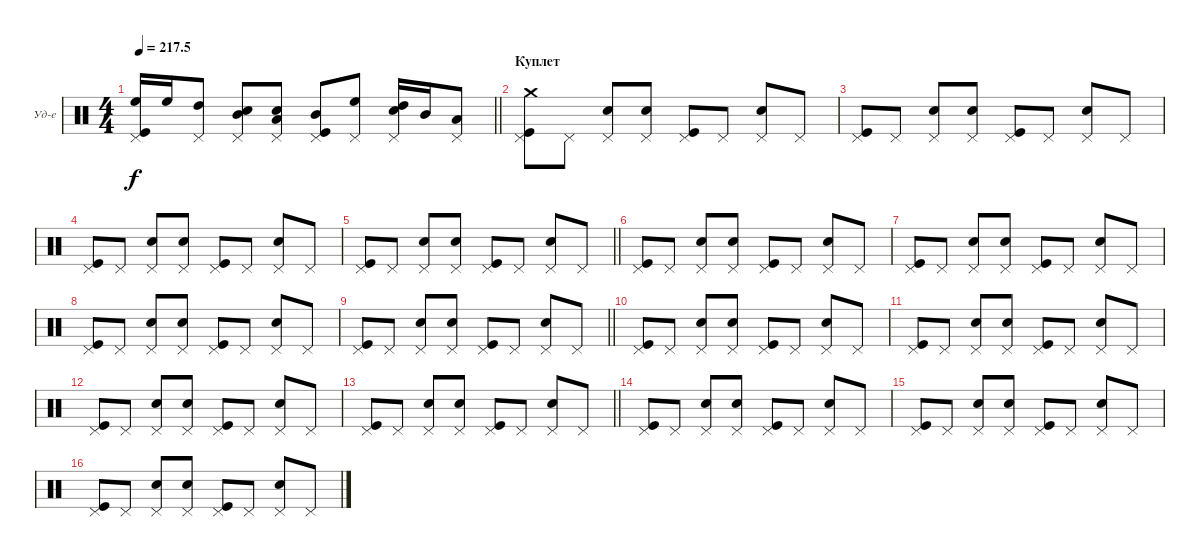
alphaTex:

\bracketExtendMode groupsimilarinstruments
\firstSystemTrackNameOrientation horizontal
\otherSystemsTrackNameOrientation horizontal
\track ("Ударные" "Уд-е") {instrument percussion}
\staff {score}
\articulation defaults
\ts (4 4)
\tempo
217.5
\accidentals auto
\clef neutral
\ottava regular
\simile none
\barLineRight lightlight
\ks c
("Pedal Hi-Hat (hit)" "Kick (hit)" "High Floor Tom (hit)").16{dy f} "High Floor Tom (hit)".16 ("Pedal Hi-Hat (hit)" "High Tom (hit)").8 ("Pedal Hi-Hat (hit)" "Snare (hit) 2" "Mid Tom (hit)").8 ("Pedal Hi-Hat (hit)" "Snare (hit) 2" "Low Tom (hit)").8 ("Pedal Hi-Hat (hit)" "Kick (hit)" "Mid Tom (hit)").8 ("Pedal Hi-Hat (hit)" "High Floor Tom (hit)").8 ("Pedal Hi-Hat (hit)" "Snare (hit) 2" "High Tom (hit)").16 "Mid Tom (hit)".16 ("Pedal Hi-Hat (hit)" "Low Tom (hit)").8 |
\section ("" "Куплет")
("Pedal Hi-Hat (hit)" "Kick (hit)" "Crash medium (hit)").8 "Pedal Hi-Hat (hit)".8 ("Pedal Hi-Hat (hit)" "Snare (hit) 2").8 ("Pedal Hi-Hat (hit)" "Snare (hit) 2").8 ("Pedal Hi-Hat (hit)" "Kick (hit)").8 "Pedal Hi-Hat (hit)".8 ("Pedal Hi-Hat (hit)" "Snare (hit) 2").8 "Pedal Hi-Hat (hit)".8 |
("Pedal Hi-Hat (hit)" "Kick (hit)").8 "Pedal Hi-Hat (hit)".8 ("Pedal Hi-Hat (hit)" "Snare (hit) 2").8 ("Pedal Hi-Hat (hit)" "Snare (hit) 2").8 ("Pedal Hi-Hat (hit)" "Kick (hit)").8 "Pedal Hi-Hat (hit)".8 ("Pedal Hi-Hat (hit)" "Snare (hit) 2").8 "Pedal Hi-Hat (hit)".8 |
("Pedal Hi-Hat (hit)" "Kick (hit)").8 "Pedal Hi-Hat (hit)".8 ("Pedal Hi-Hat (hit)" "Snare (hit) 2").8 ("Pedal Hi-Hat (hit)" "Snare (hit) 2").8 ("Pedal Hi-Hat (hit)" "Kick (hit)").8 "Pedal Hi-Hat (hit)".8 ("Pedal Hi-Hat (hit)" "Snare (hit) 2").8 "Pedal Hi-Hat (hit)".8 |
\barLineRight lightlight
("Pedal Hi-Hat (hit)" "Kick (hit)").8 "Pedal Hi-Hat (hit)".8 ("Pedal Hi-Hat (hit)" "Snare (hit) 2").8 ("Pedal Hi-Hat (hit)" "Snare (hit) 2").8 ("Pedal Hi-Hat (hit)" "Kick (hit)").8 "Pedal Hi-Hat (hit)".8 ("Pedal Hi-Hat (hit)" "Snare (hit) 2").8 "Pedal Hi-Hat (hit)".8 |
("Pedal Hi-Hat (hit)" "Kick (hit)").8 "Pedal Hi-Hat (hit)".8 ("Pedal Hi-Hat (hit)" "Snare (hit) 2").8 ("Pedal Hi-Hat (hit)" "Snare (hit) 2").8 ("Pedal Hi-Hat (hit)" "Kick (hit)").8 "Pedal Hi-Hat (hit)".8 ("Pedal Hi-Hat (hit)" "Snare (hit) 2").8 "Pedal Hi-Hat (hit)".8 |
("Pedal Hi-Hat (hit)" "Kick (hit)").8 "Pedal Hi-Hat (hit)".8 ("Pedal Hi-Hat (hit)" "Snare (hit) 2").8 ("Pedal Hi-Hat (hit)" "Snare (hit) 2").8 ("Pedal Hi-Hat (hit)" "Kick (hit)").8 "Pedal Hi-Hat (hit)".8 ("Pedal Hi-Hat (hit)" "Snare (hit) 2").8 "Pedal Hi-Hat (hit)".8 |
("Pedal Hi-Hat (hit)" "Kick (hit)").8 "Pedal Hi-Hat (hit)".8 ("Pedal Hi-Hat (hit)" "Snare (hit) 2").8 ("Pedal Hi-Hat (hit)" "Snare (hit) 2").8 ("Pedal Hi-Hat (hit)" "Kick (hit)").8 "Pedal Hi-Hat (hit)".8 ("Pedal Hi-Hat (hit)" "Snare (hit) 2").8 "Pedal Hi-Hat (hit)".8 |
\barLineRight lightlight
("Pedal Hi-Hat (hit)" "Kick (hit)").8 "Pedal Hi-Hat (hit)".8 ("Pedal Hi-Hat (hit)" "Snare (hit) 2").8 ("Pedal Hi-Hat (hit)" "Snare (hit) 2").8 ("Pedal Hi-Hat (hit)" "Kick (hit)").8 "Pedal Hi-Hat (hit)".8 ("Pedal Hi-Hat (hit)" "Snare (hit) 2").8 "Pedal Hi-Hat (hit)".8 |
("Pedal Hi-Hat (hit)" "Kick (hit)").8 "Pedal Hi-Hat (hit)".8 ("Pedal Hi-Hat (hit)" "Snare (hit) 2").8 ("Pedal Hi-Hat (hit)" "Snare (hit) 2").8 ("Pedal Hi-Hat (hit)" "Kick (hit)").8 "Pedal Hi-Hat (hit)".8 ("Pedal Hi-Hat (hit)" "Snare (hit) 2").8 "Pedal Hi-Hat (hit)".8 |
("Pedal Hi-Hat (hit)" "Kick (hit)").8 "Pedal Hi-Hat (hit)".8 ("Pedal Hi-Hat (hit)" "Snare (hit) 2").8 ("Pedal Hi-Hat (hit)" "Snare (hit) 2").8 ("Pedal Hi-Hat (hit)" "Kick (hit)").8 "Pedal Hi-Hat (hit)".8 ("Pedal Hi-Hat (hit)" "Snare (hit) 2").8 "Pedal Hi-Hat (hit)".8 |
("Pedal Hi-Hat (hit)" "Kick (hit)").8 "Pedal Hi-Hat (hit)".8 ("Pedal Hi-Hat (hit)" "Snare (hit) 2").8 ("Pedal Hi-Hat (hit)" "Snare (hit) 2").8 ("Pedal Hi-Hat (hit)" "Kick (hit)").8 "Pedal Hi-Hat (hit)".8 ("Pedal Hi-Hat (hit)" "Snare (hit) 2").8 "Pedal Hi-Hat (hit)".8 |
\barLineRight lightlight
("Pedal Hi-Hat (hit)" "Kick (hit)").8 "Pedal Hi-Hat (hit)".8 ("Pedal Hi-Hat (hit)" "Snare (hit) 2").8 ("Pedal Hi-Hat (hit)" "Snare (hit) 2").8 ("Pedal Hi-Hat (hit)" "Kick (hit)").8 "Pedal Hi-Hat (hit)".8 ("Pedal Hi-Hat (hit)" "Snare (hit) 2").8 "Pedal Hi-Hat (hit)".8 |
("Pedal Hi-Hat (hit)" "Kick (hit)").8 "Pedal Hi-Hat (hit)".8 ("Pedal Hi-Hat (hit)" "Snare (hit) 2").8 ("Pedal Hi-Hat (hit)" "Snare (hit) 2").8 ("Pedal Hi-Hat (hit)" "Kick (hit)").8 "Pedal Hi-Hat (hit)".8 ("Pedal Hi-Hat (hit)" "Snare (hit) 2").8 "Pedal Hi-Hat (hit)".8 |
("Pedal Hi-Hat (hit)" "Kick (hit)").8 "Pedal Hi-Hat (hit)".8 ("Pedal Hi-Hat (hit)" "Snare (hit) 2").8 ("Pedal Hi-Hat (hit)" "Snare (hit) 2").8 ("Pedal Hi-Hat (hit)" "Kick (hit)").8 "Pedal Hi-Hat (hit)".8 ("Pedal Hi-Hat (hit)" "Snare (hit) 2").8 "Pedal Hi-Hat (hit)".8 |
("Pedal Hi-Hat (hit)" "Kick (hit)").8 "Pedal Hi-Hat (hit)".8 ("Pedal Hi-Hat (hit)" "Snare (hit) 2").8 ("Pedal Hi-Hat (hit)" "Snare (hit) 2").8 ("Pedal Hi-Hat (hit)" "Kick (hit)").8 "Pedal Hi-Hat (hit)".8 ("Pedal Hi-Hat (hit)" "Snare (hit) 2").8 "Pedal Hi-Hat (hit)".8
